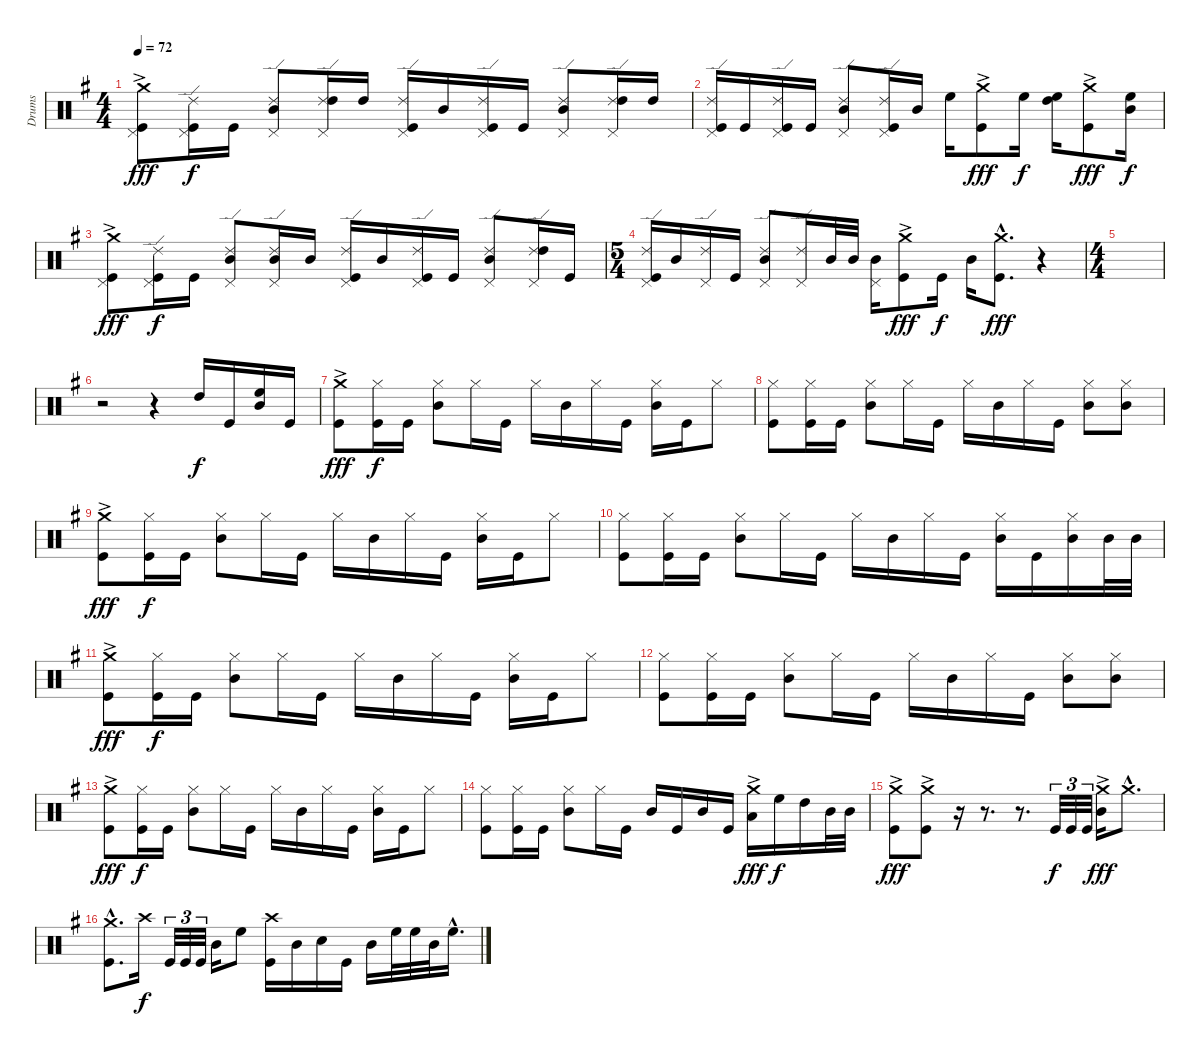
\track ("Drums" "Drums") {instrument percussion}
\staff {score}
\articulation defaults
\ts (4 4)
\tempo 72
\clef neutral
\ks g
("Crash medium (hit)"{ac} "Kick (hit)" "Pedal Hi-Hat (hit)").8{dy fff} ("Ride (edge) 2" "Kick (hit)" "Pedal Hi-Hat (hit)").16{dy f} "Kick (hit)".16 ("Ride (edge) 2" "Mid Tom (hit)" "Pedal Hi-Hat (hit)").8 ("Ride (edge) 2" "High Tom (hit)" "Pedal Hi-Hat (hit)").16 "High Tom (hit)".16 ("Ride (edge) 2" "Kick (hit)" "Pedal Hi-Hat (hit)").16 "Mid Tom (hit)".16 ("Ride (edge) 2" "Kick (hit)" "Pedal Hi-Hat (hit)").16 "Kick (hit)".16 ("Ride (edge) 2" "Mid Tom (hit)" "Pedal Hi-Hat (hit)").8 ("Ride (edge) 2" "High Tom (hit)" "Pedal Hi-Hat (hit)").16 "High Tom (hit)".16 |
("Ride (edge) 2" "Kick (hit)" "Pedal Hi-Hat (hit)").16 "Kick (hit)".16 ("Ride (edge) 2" "Kick (hit)" "Pedal Hi-Hat (hit)").16 "Kick (hit)".16 ("Ride (edge) 2" "Mid Tom (hit)" "Pedal Hi-Hat (hit)").8 ("Ride (edge) 2" "Kick (hit)" "Pedal Hi-Hat (hit)").16 "Mid Tom (hit)".16 "High Floor Tom (hit)".16 ("Crash medium (hit)"{ac} "Kick (hit)").8{dy fff} "High Floor Tom (hit)".16{dy f} ("High Floor Tom (hit)" "High Tom (hit)").16 ("Crash medium (hit)"{ac} "Kick (hit)").8{dy fff} ("High Floor Tom (hit)" "Mid Tom (hit)").16{dy f} |
("Crash medium (hit)"{ac} "Kick (hit)" "Pedal Hi-Hat (hit)").8{dy fff} ("Ride (edge) 2" "Kick (hit)" "Pedal Hi-Hat (hit)").16{dy f} "Kick (hit)".16 ("Ride (edge) 2" "Mid Tom (hit)" "Pedal Hi-Hat (hit)").8 ("Ride (edge) 2" "Mid Tom (hit)" "Pedal Hi-Hat (hit)").16 "Mid Tom (hit)".16 ("Ride (edge) 2" "Kick (hit)" "Pedal Hi-Hat (hit)").16 "Mid Tom (hit)".16 ("Ride (edge) 2" "Kick (hit)" "Pedal Hi-Hat (hit)").16 "Kick (hit)".16 ("Ride (edge) 2" "Mid Tom (hit)" "Pedal Hi-Hat (hit)").8 ("Ride (edge) 2" "High Tom (hit)" "Pedal Hi-Hat (hit)").16 "Kick (hit)".16 |
\ts (5 4)
("Ride (edge) 2" "Kick (hit)" "Pedal Hi-Hat (hit)").16 "Mid Tom (hit)".16 ("Ride (edge) 2" "Pedal Hi-Hat (hit)").16 "Kick (hit)".16 ("Ride (edge) 2" "Mid Tom (hit)" "Pedal Hi-Hat (hit)").8 ("Ride (edge) 2" "Pedal Hi-Hat (hit)").16 "Mid Tom (hit)".32 "Mid Tom (hit)".32 ("Mid Tom (hit)" "Pedal Hi-Hat (hit)").16 ("Crash medium (hit)"{ac} "Kick (hit)").8{dy fff} "Kick (hit)".16{dy f} "Mid Tom (hit)".16 ("Crash medium (hit)"{hac} "Kick (hit)"{hac}).8{d dy fff} r.4 |
\ts (4 4)
|
r.2 r.4 "High Tom (hit)".16{dy f} "Kick (hit)".16 ("High Floor Tom (hit)" "Mid Tom (hit)").16 "Kick (hit)".16 |
("Crash medium (hit)"{ac} "Kick (hit)").8{dy fff} ("Hi-Hat (closed)" "Kick (hit)").16{dy f} "Kick (hit)".16 ("Hi-Hat (closed)" "Mid Tom (hit)").8 "Hi-Hat (closed)".16 "Kick (hit)".16 "Hi-Hat (closed)".16 "Mid Tom (hit)".16 "Hi-Hat (closed)".16 "Kick (hit)".16 ("Hi-Hat (closed)" "Mid Tom (hit)").16 "Kick (hit)".16 "Hi-Hat (closed)".8 |
("Hi-Hat (closed)" "Kick (hit)").8 ("Hi-Hat (closed)" "Kick (hit)").16 "Kick (hit)".16 ("Hi-Hat (closed)" "Mid Tom (hit)").8 "Hi-Hat (closed)".16 "Kick (hit)".16 "Hi-Hat (closed)".16 "Mid Tom (hit)".16 "Hi-Hat (closed)".16 "Kick (hit)".16 ("Hi-Hat (closed)" "Mid Tom (hit)").8 ("Hi-Hat (closed)" "Mid Tom (hit)").8 |
("Crash medium (hit)"{ac} "Kick (hit)").8{dy fff} ("Hi-Hat (closed)" "Kick (hit)").16{dy f} "Kick (hit)".16 ("Hi-Hat (closed)" "Mid Tom (hit)").8 "Hi-Hat (closed)".16 "Kick (hit)".16 "Hi-Hat (closed)".16 "Mid Tom (hit)".16 "Hi-Hat (closed)".16 "Kick (hit)".16 ("Hi-Hat (closed)" "Mid Tom (hit)").16 "Kick (hit)".16 "Hi-Hat (closed)".8 |
("Hi-Hat (closed)" "Kick (hit)").8 ("Hi-Hat (closed)" "Kick (hit)").16 "Kick (hit)".16 ("Hi-Hat (closed)" "Mid Tom (hit)").8 "Hi-Hat (closed)".16 "Kick (hit)".16 "Hi-Hat (closed)".16 "Mid Tom (hit)".16 "Hi-Hat (closed)".16 "Kick (hit)".16 ("Hi-Hat (closed)" "Mid Tom (hit)").16 "Kick (hit)".16 ("Hi-Hat (closed)" "Mid Tom (hit)").16 "Mid Tom (hit)".32 "Mid Tom (hit)".32 |
("Crash medium (hit)"{ac} "Kick (hit)").8{dy fff} ("Hi-Hat (closed)" "Kick (hit)").16{dy f} "Kick (hit)".16 ("Hi-Hat (closed)" "Mid Tom (hit)").8 "Hi-Hat (closed)".16 "Kick (hit)".16 "Hi-Hat (closed)".16 "Mid Tom (hit)".16 "Hi-Hat (closed)".16 "Kick (hit)".16 ("Hi-Hat (closed)" "Mid Tom (hit)").16 "Kick (hit)".16 "Hi-Hat (closed)".8 |
("Hi-Hat (closed)" "Kick (hit)").8 ("Hi-Hat (closed)" "Kick (hit)").16 "Kick (hit)".16 ("Hi-Hat (closed)" "Mid Tom (hit)").8 "Hi-Hat (closed)".16 "Kick (hit)".16 "Hi-Hat (closed)".16 "Mid Tom (hit)".16 "Hi-Hat (closed)".16 "Kick (hit)".16 ("Hi-Hat (closed)" "Mid Tom (hit)").8 ("Hi-Hat (closed)" "Mid Tom (hit)").8 |
("Crash medium (hit)"{ac} "Kick (hit)").8{dy fff} ("Hi-Hat (closed)" "Kick (hit)").16{dy f} "Kick (hit)".16 ("Hi-Hat (closed)" "Mid Tom (hit)").8 "Hi-Hat (closed)".16 "Kick (hit)".16 "Hi-Hat (closed)".16 "Mid Tom (hit)".16 "Hi-Hat (closed)".16 "Kick (hit)".16 ("Hi-Hat (closed)" "Mid Tom (hit)").16 "Kick (hit)".16 "Hi-Hat (closed)".8 |
("Hi-Hat (closed)" "Kick (hit)").8 ("Hi-Hat (closed)" "Kick (hit)").16 "Kick (hit)".16 ("Hi-Hat (closed)" "Mid Tom (hit)").8 "Hi-Hat (closed)".16 "Kick (hit)".16 "Mid Tom (hit)".16 "Kick (hit)".16 "Mid Tom (hit)".16 "Kick (hit)".16 ("Crash medium (hit)"{ac} "Low Tom (hit)").16{dy fff} "High Floor Tom (hit)".16{dy f} "High Tom (hit)".16 "Mid Tom (hit)".32 "Mid Tom (hit)".32 |
("Crash medium (hit)"{ac} "Kick (hit)").8{dy fff} ("Crash medium (hit)"{ac} "Kick (hit)").8 r.16 r.8{d} r.8{d} "Kick (hit)".32{tu (3 2) dy f} "Kick (hit)".32{tu (3 2)} "Kick (hit)".32{tu (3 2)} ("Crash medium (hit)"{ac} "Mid Tom (hit)").16{dy fff} "Crash medium (hit)"{hac}.8{d} |
("Crash medium (hit)"{hac} "Kick (hit)"{hac}).8{d} "Crash high (hit)".16{dy f} "Kick (hit)".32{tu (3 2)} "Kick (hit)".32{tu (3 2)} "Kick (hit)".32{tu (3 2)} "Mid Tom (hit)".16 "High Floor Tom (hit)".8 ("Crash high (hit)" "Kick (hit)").16 "Mid Tom (hit)".16 "Electric Snare (hit)".16 "Kick (hit)".16 "Mid Tom (hit)".16 "High Floor Tom (hit)".32 "High Floor Tom (hit)".32 "Mid Tom (hit)".32 "High Floor Tom (hit)"{hac}.16{d}
